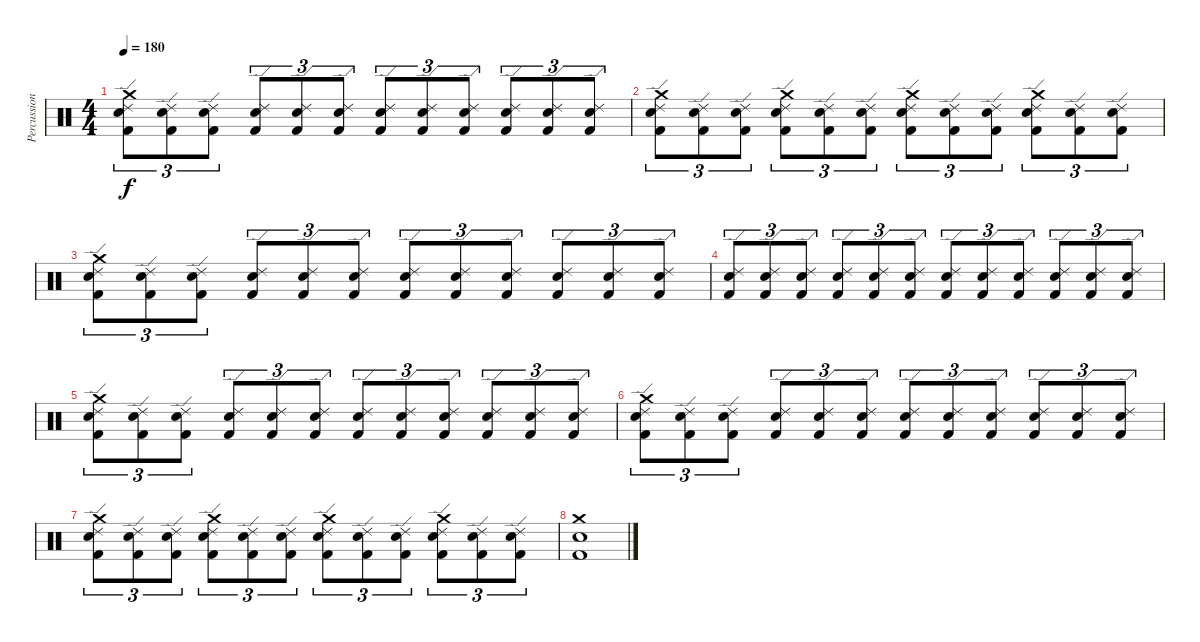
\track ("Percussioni" "Percussion") {instrument percussion}
\staff {score}
\articulation defaults
\ts (4 4)
\tempo 180
\clef neutral
\ks c
("Crash medium (hit)" "Ride (edge) 2" "Snare (hit) 2" "Kick (hit) 2").8{tu (3 2) dy f} ("Ride (edge) 2" "Snare (hit) 2" "Kick (hit) 2").8{tu (3 2)} ("Ride (edge) 2" "Snare (hit) 2" "Kick (hit) 2").8{tu (3 2)} ("Ride (edge) 2" "Snare (hit) 2" "Kick (hit) 2").8{tu (3 2)} ("Ride (edge) 2" "Snare (hit) 2" "Kick (hit) 2").8{tu (3 2)} ("Ride (edge) 2" "Snare (hit) 2" "Kick (hit) 2").8{tu (3 2)} ("Ride (edge) 2" "Snare (hit) 2" "Kick (hit) 2").8{tu (3 2)} ("Ride (edge) 2" "Snare (hit) 2" "Kick (hit) 2").8{tu (3 2)} ("Ride (edge) 2" "Snare (hit) 2" "Kick (hit) 2").8{tu (3 2)} ("Ride (edge) 2" "Snare (hit) 2" "Kick (hit) 2").8{tu (3 2)} ("Ride (edge) 2" "Snare (hit) 2" "Kick (hit) 2").8{tu (3 2)} ("Ride (edge) 2" "Snare (hit) 2" "Kick (hit) 2").8{tu (3 2)} |
("Crash medium (hit)" "Ride (edge) 2" "Snare (hit) 2" "Kick (hit) 2").8{tu (3 2)} ("Ride (edge) 2" "Snare (hit) 2" "Kick (hit) 2").8{tu (3 2)} ("Ride (edge) 2" "Snare (hit) 2" "Kick (hit) 2").8{tu (3 2)} ("Crash medium (hit)" "Ride (edge) 2" "Snare (hit) 2" "Kick (hit) 2").8{tu (3 2)} ("Ride (edge) 2" "Snare (hit) 2" "Kick (hit) 2").8{tu (3 2)} ("Ride (edge) 2" "Snare (hit) 2" "Kick (hit) 2").8{tu (3 2)} ("Crash medium (hit)" "Ride (edge) 2" "Snare (hit) 2" "Kick (hit) 2").8{tu (3 2)} ("Ride (edge) 2" "Snare (hit) 2" "Kick (hit) 2").8{tu (3 2)} ("Ride (edge) 2" "Snare (hit) 2" "Kick (hit) 2").8{tu (3 2)} ("Crash medium (hit)" "Ride (edge) 2" "Snare (hit) 2" "Kick (hit) 2").8{tu (3 2)} ("Ride (edge) 2" "Snare (hit) 2" "Kick (hit) 2").8{tu (3 2)} ("Ride (edge) 2" "Snare (hit) 2" "Kick (hit) 2").8{tu (3 2)} |
("Crash medium (hit)" "Ride (edge) 2" "Snare (hit) 2" "Kick (hit) 2").8{tu (3 2)} ("Ride (edge) 2" "Snare (hit) 2" "Kick (hit) 2").8{tu (3 2)} ("Ride (edge) 2" "Snare (hit) 2" "Kick (hit) 2").8{tu (3 2)} ("Ride (edge) 2" "Snare (hit) 2" "Kick (hit) 2").8{tu (3 2)} ("Ride (edge) 2" "Snare (hit) 2" "Kick (hit) 2").8{tu (3 2)} ("Ride (edge) 2" "Snare (hit) 2" "Kick (hit) 2").8{tu (3 2)} ("Ride (edge) 2" "Snare (hit) 2" "Kick (hit) 2").8{tu (3 2)} ("Ride (edge) 2" "Snare (hit) 2" "Kick (hit) 2").8{tu (3 2)} ("Ride (edge) 2" "Snare (hit) 2" "Kick (hit) 2").8{tu (3 2)} ("Ride (edge) 2" "Snare (hit) 2" "Kick (hit) 2").8{tu (3 2)} ("Ride (edge) 2" "Snare (hit) 2" "Kick (hit) 2").8{tu (3 2)} ("Ride (edge) 2" "Snare (hit) 2" "Kick (hit) 2").8{tu (3 2)} |
("Ride (edge) 2" "Snare (hit) 2" "Kick (hit) 2").8{tu (3 2)} ("Ride (edge) 2" "Snare (hit) 2" "Kick (hit) 2").8{tu (3 2)} ("Ride (edge) 2" "Snare (hit) 2" "Kick (hit) 2").8{tu (3 2)} ("Ride (edge) 2" "Snare (hit) 2" "Kick (hit) 2").8{tu (3 2)} ("Ride (edge) 2" "Snare (hit) 2" "Kick (hit) 2").8{tu (3 2)} ("Ride (edge) 2" "Snare (hit) 2" "Kick (hit) 2").8{tu (3 2)} ("Ride (edge) 2" "Snare (hit) 2" "Kick (hit) 2").8{tu (3 2)} ("Ride (edge) 2" "Snare (hit) 2" "Kick (hit) 2").8{tu (3 2)} ("Ride (edge) 2" "Snare (hit) 2" "Kick (hit) 2").8{tu (3 2)} ("Ride (edge) 2" "Snare (hit) 2" "Kick (hit) 2").8{tu (3 2)} ("Ride (edge) 2" "Snare (hit) 2" "Kick (hit) 2").8{tu (3 2)} ("Ride (edge) 2" "Snare (hit) 2" "Kick (hit) 2").8{tu (3 2)} |
("Crash medium (hit)" "Ride (edge) 2" "Snare (hit) 2" "Kick (hit) 2").8{tu (3 2)} ("Ride (edge) 2" "Snare (hit) 2" "Kick (hit) 2").8{tu (3 2)} ("Ride (edge) 2" "Snare (hit) 2" "Kick (hit) 2").8{tu (3 2)} ("Ride (edge) 2" "Snare (hit) 2" "Kick (hit) 2").8{tu (3 2)} ("Ride (edge) 2" "Snare (hit) 2" "Kick (hit) 2").8{tu (3 2)} ("Ride (edge) 2" "Snare (hit) 2" "Kick (hit) 2").8{tu (3 2)} ("Ride (edge) 2" "Snare (hit) 2" "Kick (hit) 2").8{tu (3 2)} ("Ride (edge) 2" "Snare (hit) 2" "Kick (hit) 2").8{tu (3 2)} ("Ride (edge) 2" "Snare (hit) 2" "Kick (hit) 2").8{tu (3 2)} ("Ride (edge) 2" "Snare (hit) 2" "Kick (hit) 2").8{tu (3 2)} ("Ride (edge) 2" "Snare (hit) 2" "Kick (hit) 2").8{tu (3 2)} ("Ride (edge) 2" "Snare (hit) 2" "Kick (hit) 2").8{tu (3 2)} |
("Crash medium (hit)" "Ride (edge) 2" "Snare (hit) 2" "Kick (hit) 2").8{tu (3 2)} ("Ride (edge) 2" "Snare (hit) 2" "Kick (hit) 2").8{tu (3 2)} ("Ride (edge) 2" "Snare (hit) 2" "Kick (hit) 2").8{tu (3 2)} ("Ride (edge) 2" "Snare (hit) 2" "Kick (hit) 2").8{tu (3 2)} ("Ride (edge) 2" "Snare (hit) 2" "Kick (hit) 2").8{tu (3 2)} ("Ride (edge) 2" "Snare (hit) 2" "Kick (hit) 2").8{tu (3 2)} ("Ride (edge) 2" "Snare (hit) 2" "Kick (hit) 2").8{tu (3 2)} ("Ride (edge) 2" "Snare (hit) 2" "Kick (hit) 2").8{tu (3 2)} ("Ride (edge) 2" "Snare (hit) 2" "Kick (hit) 2").8{tu (3 2)} ("Ride (edge) 2" "Snare (hit) 2" "Kick (hit) 2").8{tu (3 2)} ("Ride (edge) 2" "Snare (hit) 2" "Kick (hit) 2").8{tu (3 2)} ("Ride (edge) 2" "Snare (hit) 2" "Kick (hit) 2").8{tu (3 2)} |
("Crash medium (hit)" "Ride (edge) 2" "Snare (hit) 2" "Kick (hit) 2").8{tu (3 2)} ("Ride (edge) 2" "Snare (hit) 2" "Kick (hit) 2").8{tu (3 2)} ("Ride (edge) 2" "Snare (hit) 2" "Kick (hit) 2").8{tu (3 2)} ("Crash medium (hit)" "Ride (edge) 2" "Snare (hit) 2" "Kick (hit) 2").8{tu (3 2)} ("Ride (edge) 2" "Snare (hit) 2" "Kick (hit) 2").8{tu (3 2)} ("Ride (edge) 2" "Snare (hit) 2" "Kick (hit) 2").8{tu (3 2)} ("Crash medium (hit)" "Ride (edge) 2" "Snare (hit) 2" "Kick (hit) 2").8{tu (3 2)} ("Ride (edge) 2" "Snare (hit) 2" "Kick (hit) 2").8{tu (3 2)} ("Ride (edge) 2" "Snare (hit) 2" "Kick (hit) 2").8{tu (3 2)} ("Crash medium (hit)" "Ride (edge) 2" "Snare (hit) 2" "Kick (hit) 2").8{tu (3 2)} ("Ride (edge) 2" "Snare (hit) 2" "Kick (hit) 2").8{tu (3 2)} ("Ride (edge) 2" "Snare (hit) 2" "Kick (hit) 2").8{tu (3 2)} |
("Crash medium (hit)" "Snare (hit) 2" "Kick (hit) 2").1
